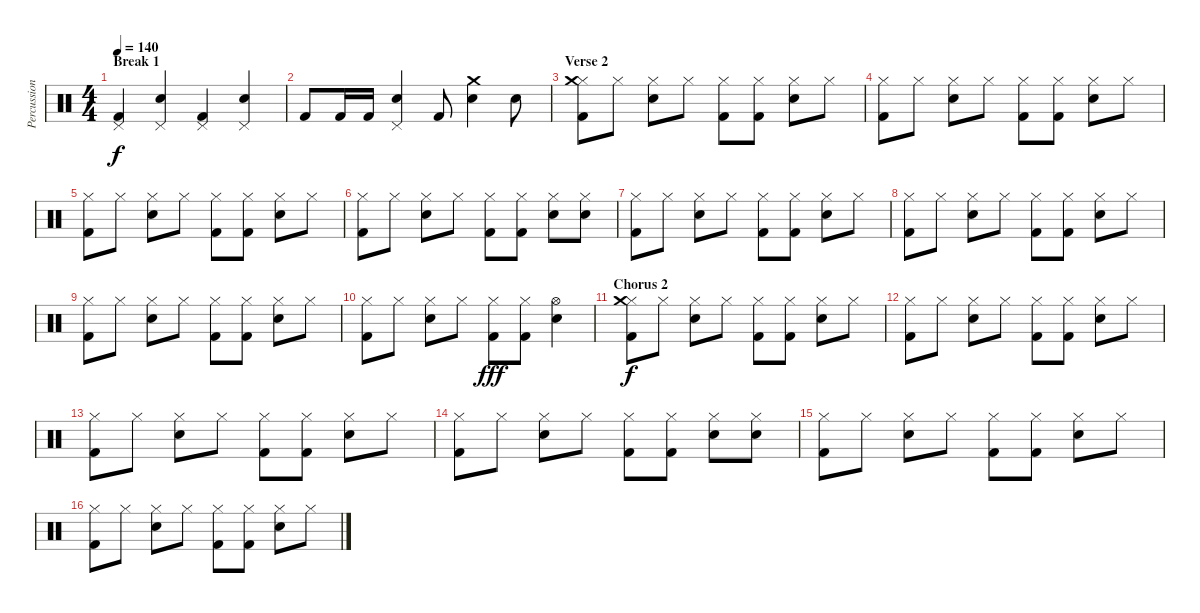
\track ("Percussions" "Percussion") {instrument percussion}
\staff {score}
\articulation defaults
\ts (4 4)
\section ("" "Break 1")
\tempo 140
\clef neutral
\ks c
("Pedal Hi-Hat (hit)" "Kick (hit) 2").4{dy f} ("Pedal Hi-Hat (hit)" "Electric Snare (hit)").4 ("Pedal Hi-Hat (hit)" "Kick (hit) 2").4 ("Pedal Hi-Hat (hit)" "Electric Snare (hit)").4 |
"Kick (hit) 2".8 "Kick (hit) 2".16 "Kick (hit) 2".16 ("Pedal Hi-Hat (hit)" "Electric Snare (hit)").4 "Kick (hit) 2".8 ("Crash medium (hit)" "Electric Snare (hit)").4 "Electric Snare (hit)".8 |
\section ("" "Verse 2")
("Hi-Hat (closed)" "Crash medium (hit)" "Kick (hit) 2").8 "Hi-Hat (closed)".8 ("Hi-Hat (closed)" "Electric Snare (hit)").8 "Hi-Hat (closed)".8 ("Hi-Hat (closed)" "Kick (hit) 2").8 ("Hi-Hat (closed)" "Kick (hit) 2").8 ("Hi-Hat (closed)" "Electric Snare (hit)").8 "Hi-Hat (closed)".8 |
("Hi-Hat (closed)" "Kick (hit) 2").8 "Hi-Hat (closed)".8 ("Hi-Hat (closed)" "Electric Snare (hit)").8 "Hi-Hat (closed)".8 ("Hi-Hat (closed)" "Kick (hit) 2").8 ("Hi-Hat (closed)" "Kick (hit) 2").8 ("Hi-Hat (closed)" "Electric Snare (hit)").8 "Hi-Hat (closed)".8 |
("Hi-Hat (closed)" "Kick (hit) 2").8 "Hi-Hat (closed)".8 ("Hi-Hat (closed)" "Electric Snare (hit)").8 "Hi-Hat (closed)".8 ("Hi-Hat (closed)" "Kick (hit) 2").8 ("Hi-Hat (closed)" "Kick (hit) 2").8 ("Hi-Hat (closed)" "Electric Snare (hit)").8 "Hi-Hat (closed)".8 |
("Hi-Hat (closed)" "Kick (hit) 2").8 "Hi-Hat (closed)".8 ("Hi-Hat (closed)" "Electric Snare (hit)").8 "Hi-Hat (closed)".8 ("Hi-Hat (closed)" "Kick (hit) 2").8 ("Hi-Hat (closed)" "Kick (hit) 2").8 ("Hi-Hat (closed)" "Electric Snare (hit)").8 ("Hi-Hat (closed)" "Electric Snare (hit)").8 |
("Hi-Hat (closed)" "Kick (hit) 2").8 "Hi-Hat (closed)".8 ("Hi-Hat (closed)" "Electric Snare (hit)").8 "Hi-Hat (closed)".8 ("Hi-Hat (closed)" "Kick (hit) 2").8 ("Hi-Hat (closed)" "Kick (hit) 2").8 ("Hi-Hat (closed)" "Electric Snare (hit)").8 "Hi-Hat (closed)".8 |
("Hi-Hat (closed)" "Kick (hit) 2").8 "Hi-Hat (closed)".8 ("Hi-Hat (closed)" "Electric Snare (hit)").8 "Hi-Hat (closed)".8 ("Hi-Hat (closed)" "Kick (hit) 2").8 ("Hi-Hat (closed)" "Kick (hit) 2").8 ("Hi-Hat (closed)" "Electric Snare (hit)").8 "Hi-Hat (closed)".8 |
("Hi-Hat (closed)" "Kick (hit) 2").8 "Hi-Hat (closed)".8 ("Hi-Hat (closed)" "Electric Snare (hit)").8 "Hi-Hat (closed)".8 ("Hi-Hat (closed)" "Kick (hit) 2").8 ("Hi-Hat (closed)" "Kick (hit) 2").8 ("Hi-Hat (closed)" "Electric Snare (hit)").8 "Hi-Hat (closed)".8 |
("Hi-Hat (closed)" "Kick (hit) 2").8 "Hi-Hat (closed)".8 ("Hi-Hat (closed)" "Electric Snare (hit)").8 "Hi-Hat (closed)".8 ("Hi-Hat (closed)" "Kick (hit) 2").8{dy fff} ("Hi-Hat (closed)" "Kick (hit) 2").8 ("Hi-Hat (open)" "Electric Snare (hit)").4 |
\section ("" "Chorus 2")
("Hi-Hat (closed)" "Crash medium (hit)" "Kick (hit) 2").8{dy f} "Hi-Hat (closed)".8 ("Hi-Hat (closed)" "Electric Snare (hit)").8 "Hi-Hat (closed)".8 ("Hi-Hat (closed)" "Kick (hit) 2").8 ("Hi-Hat (closed)" "Kick (hit) 2").8 ("Hi-Hat (closed)" "Electric Snare (hit)").8 "Hi-Hat (closed)".8 |
("Hi-Hat (closed)" "Kick (hit) 2").8 "Hi-Hat (closed)".8 ("Hi-Hat (closed)" "Electric Snare (hit)").8 "Hi-Hat (closed)".8 ("Hi-Hat (closed)" "Kick (hit) 2").8 ("Hi-Hat (closed)" "Kick (hit) 2").8 ("Hi-Hat (closed)" "Electric Snare (hit)").8 "Hi-Hat (closed)".8 |
("Hi-Hat (closed)" "Kick (hit) 2").8 "Hi-Hat (closed)".8 ("Hi-Hat (closed)" "Electric Snare (hit)").8 "Hi-Hat (closed)".8 ("Hi-Hat (closed)" "Kick (hit) 2").8 ("Hi-Hat (closed)" "Kick (hit) 2").8 ("Hi-Hat (closed)" "Electric Snare (hit)").8 "Hi-Hat (closed)".8 |
("Hi-Hat (closed)" "Kick (hit) 2").8 "Hi-Hat (closed)".8 ("Hi-Hat (closed)" "Electric Snare (hit)").8 "Hi-Hat (closed)".8 ("Hi-Hat (closed)" "Kick (hit) 2").8 ("Hi-Hat (closed)" "Kick (hit) 2").8 ("Hi-Hat (closed)" "Electric Snare (hit)").8 ("Hi-Hat (closed)" "Electric Snare (hit)").8 |
("Hi-Hat (closed)" "Kick (hit) 2").8 "Hi-Hat (closed)".8 ("Hi-Hat (closed)" "Electric Snare (hit)").8 "Hi-Hat (closed)".8 ("Hi-Hat (closed)" "Kick (hit) 2").8 ("Hi-Hat (closed)" "Kick (hit) 2").8 ("Hi-Hat (closed)" "Electric Snare (hit)").8 "Hi-Hat (closed)".8 |
("Hi-Hat (closed)" "Kick (hit) 2").8 "Hi-Hat (closed)".8 ("Hi-Hat (closed)" "Electric Snare (hit)").8 "Hi-Hat (closed)".8 ("Hi-Hat (closed)" "Kick (hit) 2").8 ("Hi-Hat (closed)" "Kick (hit) 2").8 ("Hi-Hat (closed)" "Electric Snare (hit)").8 "Hi-Hat (closed)".8
